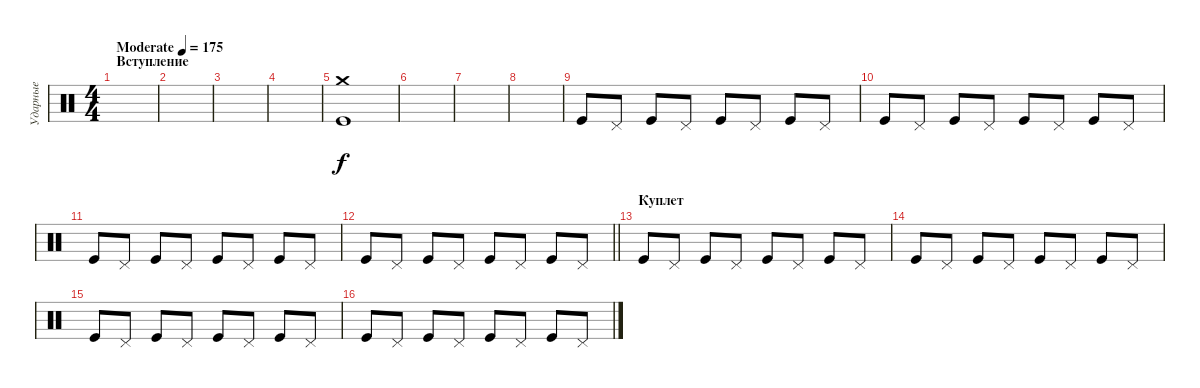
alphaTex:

\track ("Ударные" "Ударные") {instrument percussion}
\staff {score}
\articulation defaults
\ts (4 4)
\section ("" "Вступление")
\tempo (175 "Moderate")
\clef neutral
\ks c
|
|
|
|
("Crash medium (hit)" "Kick (hit)").1 |
|
|
|
"Kick (hit)".8 "Pedal Hi-Hat (hit)".8 "Kick (hit)".8 "Pedal Hi-Hat (hit)".8 "Kick (hit)".8 "Pedal Hi-Hat (hit)".8 "Kick (hit)".8 "Pedal Hi-Hat (hit)".8 |
"Kick (hit)".8 "Pedal Hi-Hat (hit)".8 "Kick (hit)".8 "Pedal Hi-Hat (hit)".8 "Kick (hit)".8 "Pedal Hi-Hat (hit)".8 "Kick (hit)".8 "Pedal Hi-Hat (hit)".8 |
"Kick (hit)".8 "Pedal Hi-Hat (hit)".8 "Kick (hit)".8 "Pedal Hi-Hat (hit)".8 "Kick (hit)".8 "Pedal Hi-Hat (hit)".8 "Kick (hit)".8 "Pedal Hi-Hat (hit)".8 |
\barLineRight lightlight "Kick (hit)".8 "Pedal Hi-Hat (hit)".8 "Kick (hit)".8 "Pedal Hi-Hat (hit)".8 "Kick (hit)".8 "Pedal Hi-Hat (hit)".8 "Kick (hit)".8 "Pedal Hi-Hat (hit)".8
|
\section ("" "Куплет")
"Kick (hit)".8 "Pedal Hi-Hat (hit)".8 "Kick (hit)".8 "Pedal Hi-Hat (hit)".8 "Kick (hit)".8 "Pedal Hi-Hat (hit)".8 "Kick (hit)".8 "Pedal Hi-Hat (hit)".8 |
"Kick (hit)".8 "Pedal Hi-Hat (hit)".8 "Kick (hit)".8 "Pedal Hi-Hat (hit)".8 "Kick (hit)".8 "Pedal Hi-Hat (hit)".8 "Kick (hit)".8 "Pedal Hi-Hat (hit)".8 |
"Kick (hit)".8 "Pedal Hi-Hat (hit)".8 "Kick (hit)".8 "Pedal Hi-Hat (hit)".8 "Kick (hit)".8 "Pedal Hi-Hat (hit)".8 "Kick (hit)".8 "Pedal Hi-Hat (hit)".8 |
"Kick (hit)".8 "Pedal Hi-Hat (hit)".8 "Kick (hit)".8 "Pedal Hi-Hat (hit)".8 "Kick (hit)".8 "Pedal Hi-Hat (hit)".8 "Kick (hit)".8 "Pedal Hi-Hat (hit)".8
